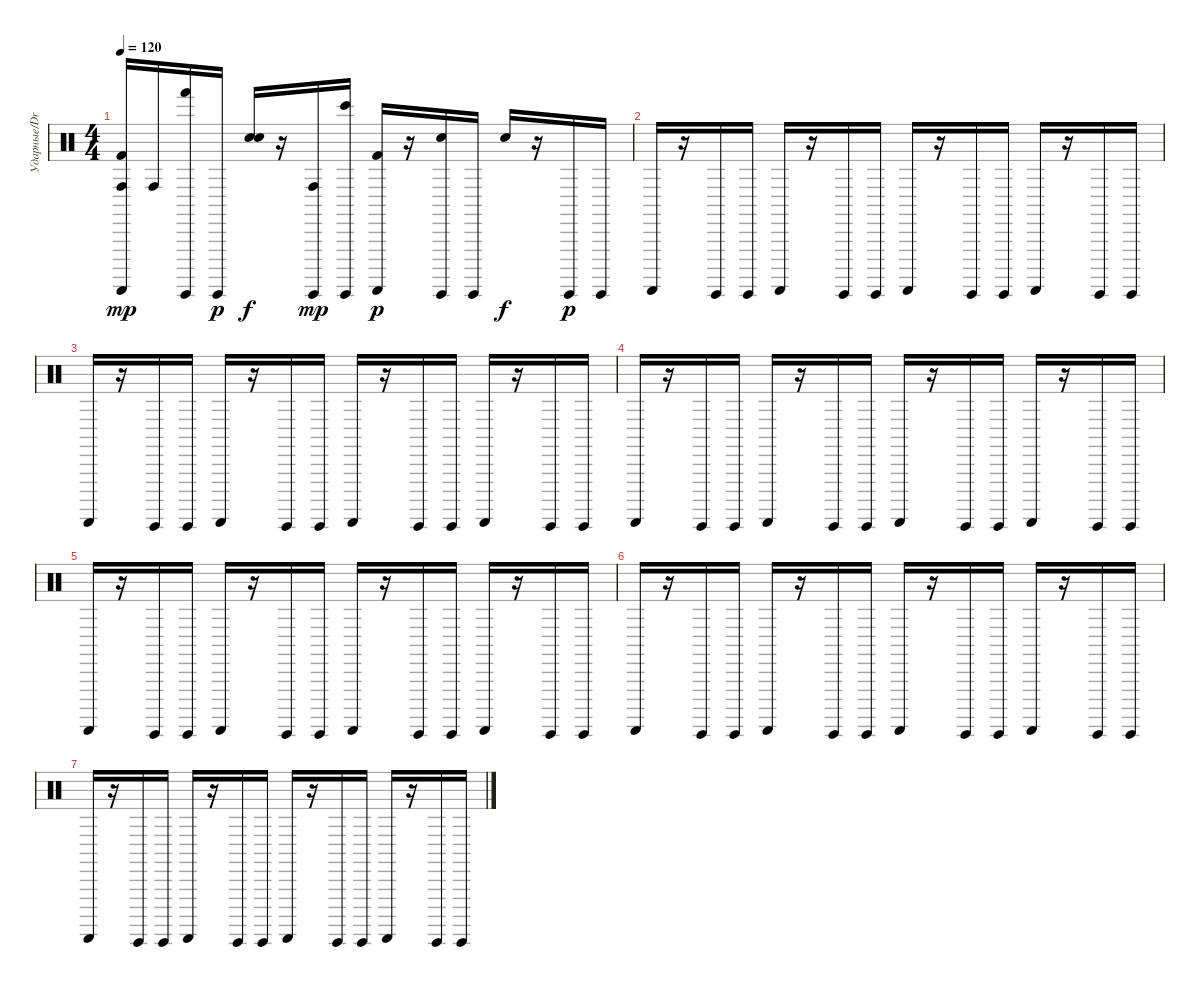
\track ("Ударные/Drums" "Ударные/Dr") {instrument percussion}
\staff {score}
\articulation defaults
\ts (4 4)
\tempo 120
\clef neutral
\ks c
("Guiro (scrap-return)" "Conga high (hit)" "Kick (hit) 2").16{dy mp} "Conga high (hit)".16 ("Guiro (hit)" "Hand (hit)").16 "Guiro (hit)".16{dy p} ("Hand Clap (hit)" "Snare (hit) 2").16{dy f} r.16 ("Guiro (hit)" "Conga high (hit)").16{dy mp} ("Guiro (hit)" "Bongo High (hit)").16 ("Guiro (scrap-return)" "Kick (hit) 2").16{dy p} r.16 ("Guiro (hit)" "Snare (hit) 2").16 "Guiro (hit)".16 "Snare (hit) 2".16{dy f} r.16 "Guiro (hit)".16{dy p} "Guiro (hit)".16 |
"Guiro (scrap-return)".16{volume 0} r.16 "Guiro (hit)".16 "Guiro (hit)".16 "Guiro (scrap-return)".16 r.16 "Guiro (hit)".16 "Guiro (hit)".16 "Guiro (scrap-return)".16 r.16 "Guiro (hit)".16 "Guiro (hit)".16 "Guiro (scrap-return)".16 r.16 "Guiro (hit)".16 "Guiro (hit)".16 |
"Guiro (scrap-return)".16 r.16 "Guiro (hit)".16 "Guiro (hit)".16 "Guiro (scrap-return)".16 r.16 "Guiro (hit)".16 "Guiro (hit)".16 "Guiro (scrap-return)".16 r.16 "Guiro (hit)".16 "Guiro (hit)".16 "Guiro (scrap-return)".16 r.16 "Guiro (hit)".16 "Guiro (hit)".16 |
"Guiro (scrap-return)".16 r.16 "Guiro (hit)".16 "Guiro (hit)".16 "Guiro (scrap-return)".16 r.16 "Guiro (hit)".16 "Guiro (hit)".16 "Guiro (scrap-return)".16 r.16 "Guiro (hit)".16 "Guiro (hit)".16 "Guiro (scrap-return)".16 r.16 "Guiro (hit)".16 "Guiro (hit)".16 |
"Guiro (scrap-return)".16 r.16 "Guiro (hit)".16 "Guiro (hit)".16 "Guiro (scrap-return)".16 r.16 "Guiro (hit)".16 "Guiro (hit)".16 "Guiro (scrap-return)".16 r.16 "Guiro (hit)".16 "Guiro (hit)".16 "Guiro (scrap-return)".16 r.16 "Guiro (hit)".16 "Guiro (hit)".16 |
"Guiro (scrap-return)".16 r.16 "Guiro (hit)".16 "Guiro (hit)".16 "Guiro (scrap-return)".16 r.16 "Guiro (hit)".16 "Guiro (hit)".16 "Guiro (scrap-return)".16 r.16 "Guiro (hit)".16 "Guiro (hit)".16 "Guiro (scrap-return)".16 r.16 "Guiro (hit)".16 "Guiro (hit)".16 |
"Guiro (scrap-return)".16 r.16 "Guiro (hit)".16 "Guiro (hit)".16 "Guiro (scrap-return)".16 r.16 "Guiro (hit)".16 "Guiro (hit)".16 "Guiro (scrap-return)".16 r.16 "Guiro (hit)".16 "Guiro (hit)".16 "Guiro (scrap-return)".16 r.16 "Guiro (hit)".16 "Guiro (hit)".16
